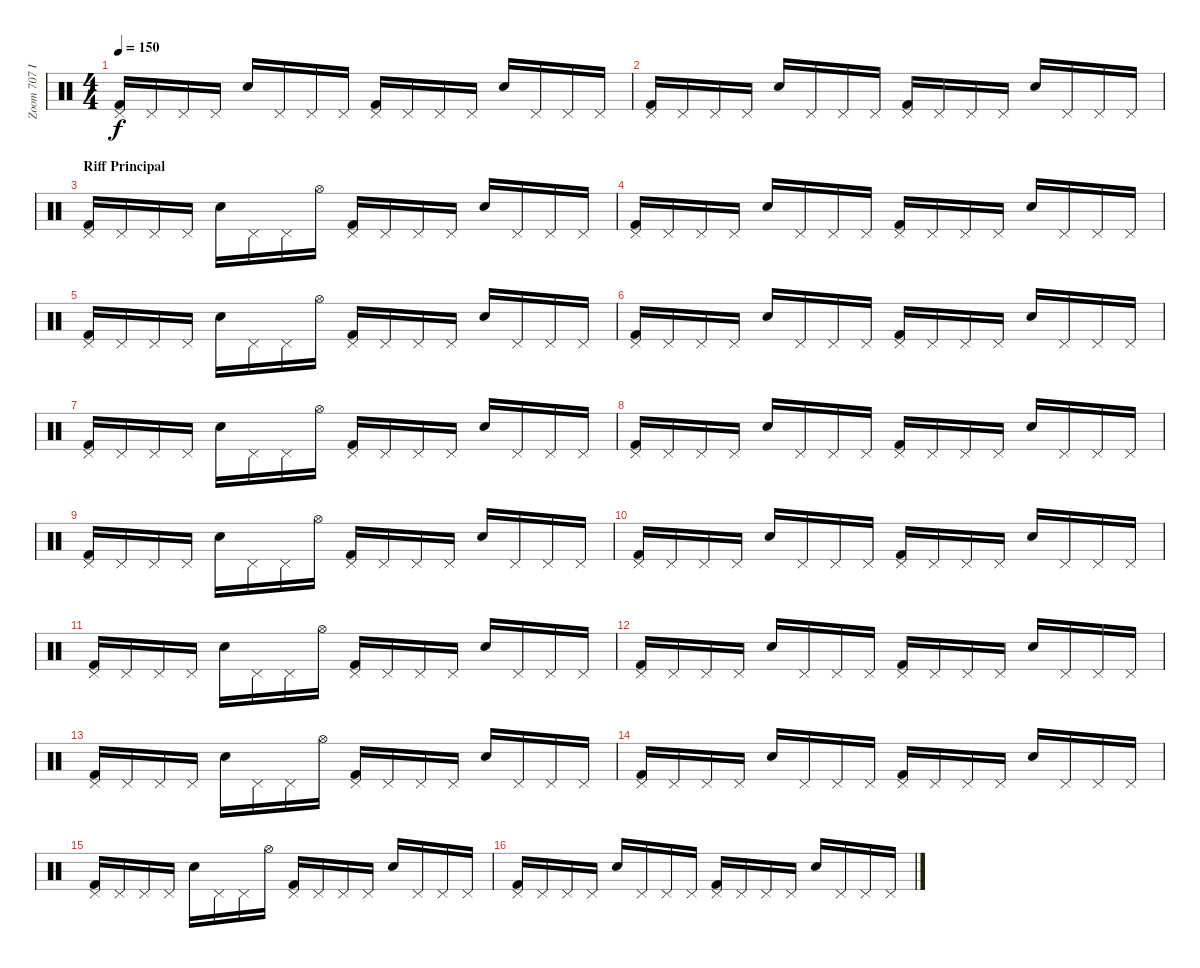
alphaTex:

\track ("Zoom 707 II" "Zoom 707 I") {instrument percussion}
\staff {score}
\articulation defaults
\ts (4 4)
\tempo 150
\clef neutral
\ks c
("Pedal Hi-Hat (hit)" "Kick (hit) 2").16{dy f} "Pedal Hi-Hat (hit)".16 "Pedal Hi-Hat (hit)".16 "Pedal Hi-Hat (hit)".16 "Snare (hit) 2".16 "Pedal Hi-Hat (hit)".16 "Pedal Hi-Hat (hit)".16 "Pedal Hi-Hat (hit)".16 ("Pedal Hi-Hat (hit)" "Kick (hit) 2").16 "Pedal Hi-Hat (hit)".16 "Pedal Hi-Hat (hit)".16 "Pedal Hi-Hat (hit)".16 "Snare (hit) 2".16 "Pedal Hi-Hat (hit)".16 "Pedal Hi-Hat (hit)".16 "Pedal Hi-Hat (hit)".16 |
("Pedal Hi-Hat (hit)" "Kick (hit) 2").16 "Pedal Hi-Hat (hit)".16 "Pedal Hi-Hat (hit)".16 "Pedal Hi-Hat (hit)".16 "Snare (hit) 2".16 "Pedal Hi-Hat (hit)".16 "Pedal Hi-Hat (hit)".16 "Pedal Hi-Hat (hit)".16 ("Pedal Hi-Hat (hit)" "Kick (hit) 2").16 "Pedal Hi-Hat (hit)".16 "Pedal Hi-Hat (hit)".16 "Pedal Hi-Hat (hit)".16 "Snare (hit) 2".16 "Pedal Hi-Hat (hit)".16 "Pedal Hi-Hat (hit)".16 "Pedal Hi-Hat (hit)".16 |
\section ("" "Riff Principal")
("Pedal Hi-Hat (hit)" "Kick (hit) 2").16 "Pedal Hi-Hat (hit)".16 "Pedal Hi-Hat (hit)".16 "Pedal Hi-Hat (hit)".16 "Snare (hit) 2".16 "Pedal Hi-Hat (hit)".16 "Pedal Hi-Hat (hit)".16 "Hi-Hat (open)".16 ("Pedal Hi-Hat (hit)" "Kick (hit) 2").16 "Pedal Hi-Hat (hit)".16 "Pedal Hi-Hat (hit)".16 "Pedal Hi-Hat (hit)".16 "Snare (hit) 2".16 "Pedal Hi-Hat (hit)".16 "Pedal Hi-Hat (hit)".16 "Pedal Hi-Hat (hit)".16 |
("Pedal Hi-Hat (hit)" "Kick (hit) 2").16 "Pedal Hi-Hat (hit)".16 "Pedal Hi-Hat (hit)".16 "Pedal Hi-Hat (hit)".16 "Snare (hit) 2".16 "Pedal Hi-Hat (hit)".16 "Pedal Hi-Hat (hit)".16 "Pedal Hi-Hat (hit)".16 ("Pedal Hi-Hat (hit)" "Kick (hit) 2").16 "Pedal Hi-Hat (hit)".16 "Pedal Hi-Hat (hit)".16 "Pedal Hi-Hat (hit)".16 "Snare (hit) 2".16 "Pedal Hi-Hat (hit)".16 "Pedal Hi-Hat (hit)".16 "Pedal Hi-Hat (hit)".16 |
("Pedal Hi-Hat (hit)" "Kick (hit) 2").16 "Pedal Hi-Hat (hit)".16 "Pedal Hi-Hat (hit)".16 "Pedal Hi-Hat (hit)".16 "Snare (hit) 2".16 "Pedal Hi-Hat (hit)".16 "Pedal Hi-Hat (hit)".16 "Hi-Hat (open)".16 ("Pedal Hi-Hat (hit)" "Kick (hit) 2").16 "Pedal Hi-Hat (hit)".16 "Pedal Hi-Hat (hit)".16 "Pedal Hi-Hat (hit)".16 "Snare (hit) 2".16 "Pedal Hi-Hat (hit)".16 "Pedal Hi-Hat (hit)".16 "Pedal Hi-Hat (hit)".16 |
("Pedal Hi-Hat (hit)" "Kick (hit) 2").16 "Pedal Hi-Hat (hit)".16 "Pedal Hi-Hat (hit)".16 "Pedal Hi-Hat (hit)".16 "Snare (hit) 2".16 "Pedal Hi-Hat (hit)".16 "Pedal Hi-Hat (hit)".16 "Pedal Hi-Hat (hit)".16 ("Pedal Hi-Hat (hit)" "Kick (hit) 2").16 "Pedal Hi-Hat (hit)".16 "Pedal Hi-Hat (hit)".16 "Pedal Hi-Hat (hit)".16 "Snare (hit) 2".16 "Pedal Hi-Hat (hit)".16 "Pedal Hi-Hat (hit)".16 "Pedal Hi-Hat (hit)".16 |
("Pedal Hi-Hat (hit)" "Kick (hit) 2").16 "Pedal Hi-Hat (hit)".16 "Pedal Hi-Hat (hit)".16 "Pedal Hi-Hat (hit)".16 "Snare (hit) 2".16 "Pedal Hi-Hat (hit)".16 "Pedal Hi-Hat (hit)".16 "Hi-Hat (open)".16 ("Pedal Hi-Hat (hit)" "Kick (hit) 2").16 "Pedal Hi-Hat (hit)".16 "Pedal Hi-Hat (hit)".16 "Pedal Hi-Hat (hit)".16 "Snare (hit) 2".16 "Pedal Hi-Hat (hit)".16 "Pedal Hi-Hat (hit)".16 "Pedal Hi-Hat (hit)".16 |
("Pedal Hi-Hat (hit)" "Kick (hit) 2").16 "Pedal Hi-Hat (hit)".16 "Pedal Hi-Hat (hit)".16 "Pedal Hi-Hat (hit)".16 "Snare (hit) 2".16 "Pedal Hi-Hat (hit)".16 "Pedal Hi-Hat (hit)".16 "Pedal Hi-Hat (hit)".16 ("Pedal Hi-Hat (hit)" "Kick (hit) 2").16 "Pedal Hi-Hat (hit)".16 "Pedal Hi-Hat (hit)".16 "Pedal Hi-Hat (hit)".16 "Snare (hit) 2".16 "Pedal Hi-Hat (hit)".16 "Pedal Hi-Hat (hit)".16 "Pedal Hi-Hat (hit)".16 |
("Pedal Hi-Hat (hit)" "Kick (hit) 2").16 "Pedal Hi-Hat (hit)".16 "Pedal Hi-Hat (hit)".16 "Pedal Hi-Hat (hit)".16 "Snare (hit) 2".16 "Pedal Hi-Hat (hit)".16 "Pedal Hi-Hat (hit)".16 "Hi-Hat (open)".16 ("Pedal Hi-Hat (hit)" "Kick (hit) 2").16 "Pedal Hi-Hat (hit)".16 "Pedal Hi-Hat (hit)".16 "Pedal Hi-Hat (hit)".16 "Snare (hit) 2".16 "Pedal Hi-Hat (hit)".16 "Pedal Hi-Hat (hit)".16 "Pedal Hi-Hat (hit)".16 |
("Pedal Hi-Hat (hit)" "Kick (hit) 2").16 "Pedal Hi-Hat (hit)".16 "Pedal Hi-Hat (hit)".16 "Pedal Hi-Hat (hit)".16 "Snare (hit) 2".16 "Pedal Hi-Hat (hit)".16 "Pedal Hi-Hat (hit)".16 "Pedal Hi-Hat (hit)".16 ("Pedal Hi-Hat (hit)" "Kick (hit) 2").16 "Pedal Hi-Hat (hit)".16 "Pedal Hi-Hat (hit)".16 "Pedal Hi-Hat (hit)".16 "Snare (hit) 2".16 "Pedal Hi-Hat (hit)".16 "Pedal Hi-Hat (hit)".16 "Pedal Hi-Hat (hit)".16 |
("Pedal Hi-Hat (hit)" "Kick (hit) 2").16 "Pedal Hi-Hat (hit)".16 "Pedal Hi-Hat (hit)".16 "Pedal Hi-Hat (hit)".16 "Snare (hit) 2".16 "Pedal Hi-Hat (hit)".16 "Pedal Hi-Hat (hit)".16 "Hi-Hat (open)".16 ("Pedal Hi-Hat (hit)" "Kick (hit) 2").16 "Pedal Hi-Hat (hit)".16 "Pedal Hi-Hat (hit)".16 "Pedal Hi-Hat (hit)".16 "Snare (hit) 2".16 "Pedal Hi-Hat (hit)".16 "Pedal Hi-Hat (hit)".16 "Pedal Hi-Hat (hit)".16 |
("Pedal Hi-Hat (hit)" "Kick (hit) 2").16 "Pedal Hi-Hat (hit)".16 "Pedal Hi-Hat (hit)".16 "Pedal Hi-Hat (hit)".16 "Snare (hit) 2".16 "Pedal Hi-Hat (hit)".16 "Pedal Hi-Hat (hit)".16 "Pedal Hi-Hat (hit)".16 ("Pedal Hi-Hat (hit)" "Kick (hit) 2").16 "Pedal Hi-Hat (hit)".16 "Pedal Hi-Hat (hit)".16 "Pedal Hi-Hat (hit)".16 "Snare (hit) 2".16 "Pedal Hi-Hat (hit)".16 "Pedal Hi-Hat (hit)".16 "Pedal Hi-Hat (hit)".16 |
("Pedal Hi-Hat (hit)" "Kick (hit) 2").16 "Pedal Hi-Hat (hit)".16 "Pedal Hi-Hat (hit)".16 "Pedal Hi-Hat (hit)".16 "Snare (hit) 2".16 "Pedal Hi-Hat (hit)".16 "Pedal Hi-Hat (hit)".16 "Hi-Hat (open)".16 ("Pedal Hi-Hat (hit)" "Kick (hit) 2").16 "Pedal Hi-Hat (hit)".16 "Pedal Hi-Hat (hit)".16 "Pedal Hi-Hat (hit)".16 "Snare (hit) 2".16 "Pedal Hi-Hat (hit)".16 "Pedal Hi-Hat (hit)".16 "Pedal Hi-Hat (hit)".16 |
("Pedal Hi-Hat (hit)" "Kick (hit) 2").16 "Pedal Hi-Hat (hit)".16 "Pedal Hi-Hat (hit)".16 "Pedal Hi-Hat (hit)".16 "Snare (hit) 2".16 "Pedal Hi-Hat (hit)".16 "Pedal Hi-Hat (hit)".16 "Pedal Hi-Hat (hit)".16 ("Pedal Hi-Hat (hit)" "Kick (hit) 2").16 "Pedal Hi-Hat (hit)".16 "Pedal Hi-Hat (hit)".16 "Pedal Hi-Hat (hit)".16 "Snare (hit) 2".16 "Pedal Hi-Hat (hit)".16 "Pedal Hi-Hat (hit)".16 "Pedal Hi-Hat (hit)".16 |
("Pedal Hi-Hat (hit)" "Kick (hit) 2").16 "Pedal Hi-Hat (hit)".16 "Pedal Hi-Hat (hit)".16 "Pedal Hi-Hat (hit)".16 "Snare (hit) 2".16 "Pedal Hi-Hat (hit)".16 "Pedal Hi-Hat (hit)".16 "Hi-Hat (open)".16 ("Pedal Hi-Hat (hit)" "Kick (hit) 2").16 "Pedal Hi-Hat (hit)".16 "Pedal Hi-Hat (hit)".16 "Pedal Hi-Hat (hit)".16 "Snare (hit) 2".16 "Pedal Hi-Hat (hit)".16 "Pedal Hi-Hat (hit)".16 "Pedal Hi-Hat (hit)".16 |
("Pedal Hi-Hat (hit)" "Kick (hit) 2").16 "Pedal Hi-Hat (hit)".16 "Pedal Hi-Hat (hit)".16 "Pedal Hi-Hat (hit)".16 "Snare (hit) 2".16 "Pedal Hi-Hat (hit)".16 "Pedal Hi-Hat (hit)".16 "Pedal Hi-Hat (hit)".16 ("Pedal Hi-Hat (hit)" "Kick (hit) 2").16 "Pedal Hi-Hat (hit)".16 "Pedal Hi-Hat (hit)".16 "Pedal Hi-Hat (hit)".16 "Snare (hit) 2".16 "Pedal Hi-Hat (hit)".16 "Pedal Hi-Hat (hit)".16 "Pedal Hi-Hat (hit)".16
